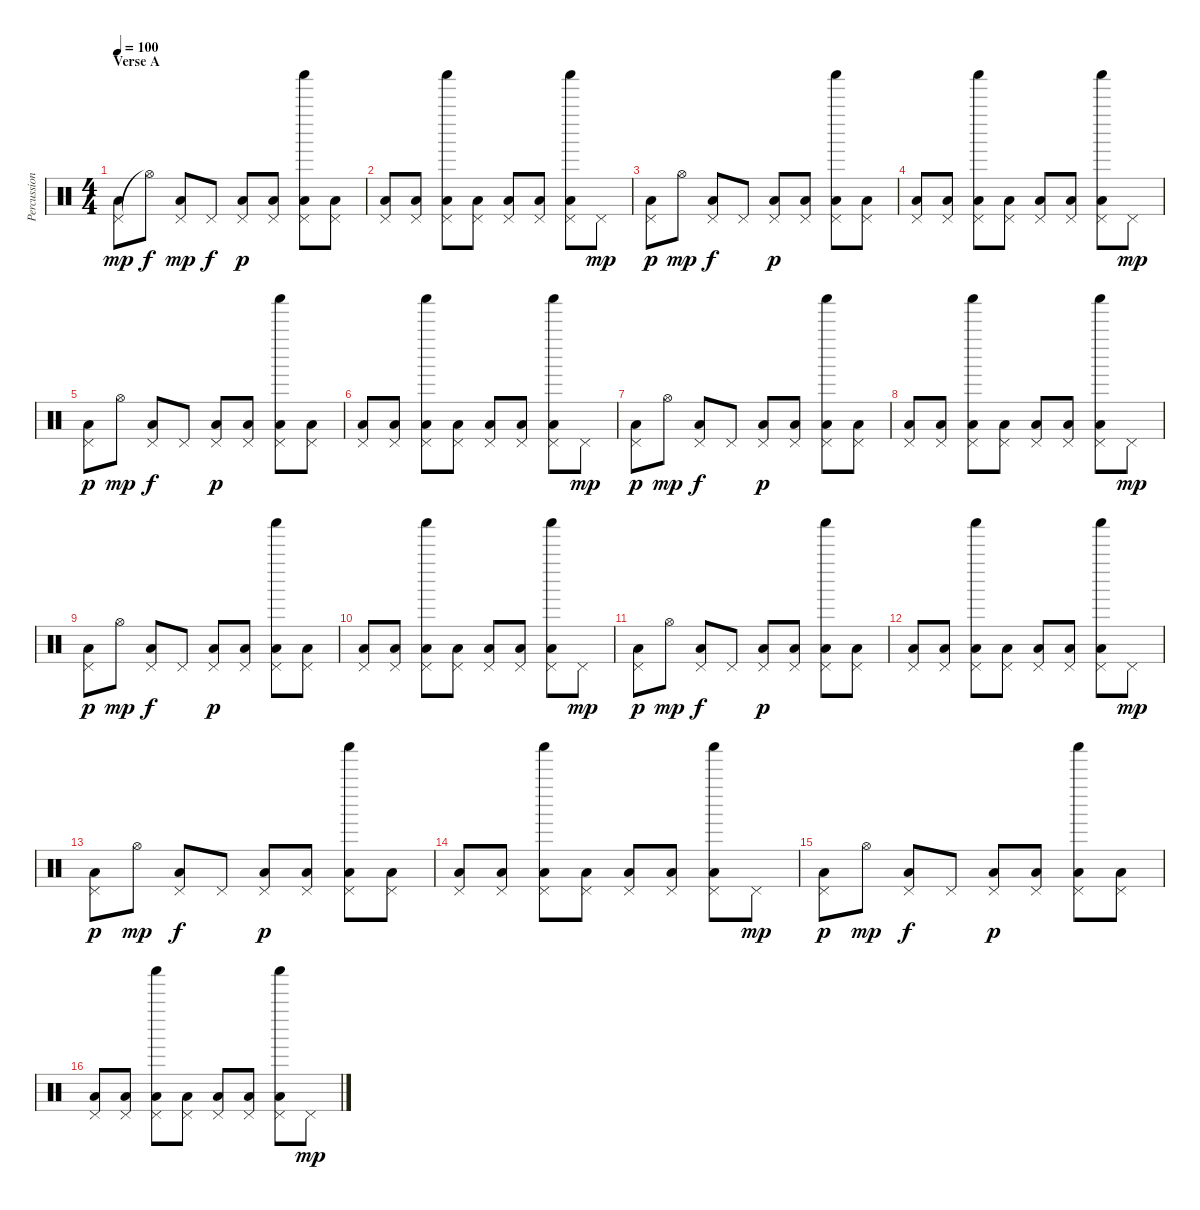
\track ("Percussions" "Percussion") {instrument percussion}
\staff {score}
\articulation defaults
\ts (4 4)
\section ("" "Verse A")
\tempo 100
\clef neutral
\ks c
("Pedal Hi-Hat (hit)"{t} "Low Floor Tom (hit)").8{dy mp} "Hi-Hat (open)"{t}.8{dy f} ("Pedal Hi-Hat (hit)" "Low Floor Tom (hit)").8{dy mp} "Pedal Hi-Hat (hit)".8{dy f} ("Pedal Hi-Hat (hit)" "Low Floor Tom (hit)").8{dy p} ("Pedal Hi-Hat (hit)" "Low Floor Tom (hit)").8 ("Pedal Hi-Hat (hit)" "Shaker (hit)" "Low Floor Tom (hit)").8 ("Pedal Hi-Hat (hit)" "Low Floor Tom (hit)").8 |
("Pedal Hi-Hat (hit)" "Low Floor Tom (hit)").8 ("Pedal Hi-Hat (hit)" "Low Floor Tom (hit)").8 ("Pedal Hi-Hat (hit)" "Shaker (hit)" "Low Floor Tom (hit)").8 ("Pedal Hi-Hat (hit)" "Low Floor Tom (hit)").8 ("Pedal Hi-Hat (hit)" "Low Floor Tom (hit)").8 ("Pedal Hi-Hat (hit)" "Low Floor Tom (hit)").8 ("Pedal Hi-Hat (hit)" "Shaker (hit)" "Low Floor Tom (hit)").8 "Pedal Hi-Hat (hit)".8{dy mp} |
("Pedal Hi-Hat (hit)" "Low Floor Tom (hit)").8{dy p} "Hi-Hat (open)".8{dy mp} ("Pedal Hi-Hat (hit)" "Low Floor Tom (hit)").8{dy f} "Pedal Hi-Hat (hit)".8 ("Pedal Hi-Hat (hit)" "Low Floor Tom (hit)").8{dy p} ("Pedal Hi-Hat (hit)" "Low Floor Tom (hit)").8 ("Pedal Hi-Hat (hit)" "Shaker (hit)" "Low Floor Tom (hit)").8 ("Pedal Hi-Hat (hit)" "Low Floor Tom (hit)").8 |
("Pedal Hi-Hat (hit)" "Low Floor Tom (hit)").8 ("Pedal Hi-Hat (hit)" "Low Floor Tom (hit)").8 ("Pedal Hi-Hat (hit)" "Shaker (hit)" "Low Floor Tom (hit)").8 ("Pedal Hi-Hat (hit)" "Low Floor Tom (hit)").8 ("Pedal Hi-Hat (hit)" "Low Floor Tom (hit)").8 ("Pedal Hi-Hat (hit)" "Low Floor Tom (hit)").8 ("Pedal Hi-Hat (hit)" "Shaker (hit)" "Low Floor Tom (hit)").8 "Pedal Hi-Hat (hit)".8{dy mp} |
("Pedal Hi-Hat (hit)" "Low Floor Tom (hit)").8{dy p} "Hi-Hat (open)".8{dy mp} ("Pedal Hi-Hat (hit)" "Low Floor Tom (hit)").8{dy f} "Pedal Hi-Hat (hit)".8 ("Pedal Hi-Hat (hit)" "Low Floor Tom (hit)").8{dy p} ("Pedal Hi-Hat (hit)" "Low Floor Tom (hit)").8 ("Pedal Hi-Hat (hit)" "Shaker (hit)" "Low Floor Tom (hit)").8 ("Pedal Hi-Hat (hit)" "Low Floor Tom (hit)").8 |
("Pedal Hi-Hat (hit)" "Low Floor Tom (hit)").8 ("Pedal Hi-Hat (hit)" "Low Floor Tom (hit)").8 ("Pedal Hi-Hat (hit)" "Shaker (hit)" "Low Floor Tom (hit)").8 ("Pedal Hi-Hat (hit)" "Low Floor Tom (hit)").8 ("Pedal Hi-Hat (hit)" "Low Floor Tom (hit)").8 ("Pedal Hi-Hat (hit)" "Low Floor Tom (hit)").8 ("Pedal Hi-Hat (hit)" "Shaker (hit)" "Low Floor Tom (hit)").8 "Pedal Hi-Hat (hit)".8{dy mp} |
("Pedal Hi-Hat (hit)" "Low Floor Tom (hit)").8{dy p} "Hi-Hat (open)".8{dy mp} ("Pedal Hi-Hat (hit)" "Low Floor Tom (hit)").8{dy f} "Pedal Hi-Hat (hit)".8 ("Pedal Hi-Hat (hit)" "Low Floor Tom (hit)").8{dy p} ("Pedal Hi-Hat (hit)" "Low Floor Tom (hit)").8 ("Pedal Hi-Hat (hit)" "Shaker (hit)" "Low Floor Tom (hit)").8 ("Pedal Hi-Hat (hit)" "Low Floor Tom (hit)").8 |
("Pedal Hi-Hat (hit)" "Low Floor Tom (hit)").8 ("Pedal Hi-Hat (hit)" "Low Floor Tom (hit)").8 ("Pedal Hi-Hat (hit)" "Shaker (hit)" "Low Floor Tom (hit)").8 ("Pedal Hi-Hat (hit)" "Low Floor Tom (hit)").8 ("Pedal Hi-Hat (hit)" "Low Floor Tom (hit)").8 ("Pedal Hi-Hat (hit)" "Low Floor Tom (hit)").8 ("Pedal Hi-Hat (hit)" "Shaker (hit)" "Low Floor Tom (hit)").8 "Pedal Hi-Hat (hit)".8{dy mp} |
("Pedal Hi-Hat (hit)" "Low Floor Tom (hit)").8{dy p} "Hi-Hat (open)".8{dy mp} ("Pedal Hi-Hat (hit)" "Low Floor Tom (hit)").8{dy f} "Pedal Hi-Hat (hit)".8 ("Pedal Hi-Hat (hit)" "Low Floor Tom (hit)").8{dy p} ("Pedal Hi-Hat (hit)" "Low Floor Tom (hit)").8 ("Pedal Hi-Hat (hit)" "Shaker (hit)" "Low Floor Tom (hit)").8 ("Pedal Hi-Hat (hit)" "Low Floor Tom (hit)").8 |
("Pedal Hi-Hat (hit)" "Low Floor Tom (hit)").8 ("Pedal Hi-Hat (hit)" "Low Floor Tom (hit)").8 ("Pedal Hi-Hat (hit)" "Shaker (hit)" "Low Floor Tom (hit)").8 ("Pedal Hi-Hat (hit)" "Low Floor Tom (hit)").8 ("Pedal Hi-Hat (hit)" "Low Floor Tom (hit)").8 ("Pedal Hi-Hat (hit)" "Low Floor Tom (hit)").8 ("Pedal Hi-Hat (hit)" "Shaker (hit)" "Low Floor Tom (hit)").8 "Pedal Hi-Hat (hit)".8{dy mp} |
("Pedal Hi-Hat (hit)" "Low Floor Tom (hit)").8{dy p} "Hi-Hat (open)".8{dy mp} ("Pedal Hi-Hat (hit)" "Low Floor Tom (hit)").8{dy f} "Pedal Hi-Hat (hit)".8 ("Pedal Hi-Hat (hit)" "Low Floor Tom (hit)").8{dy p} ("Pedal Hi-Hat (hit)" "Low Floor Tom (hit)").8 ("Pedal Hi-Hat (hit)" "Shaker (hit)" "Low Floor Tom (hit)").8 ("Pedal Hi-Hat (hit)" "Low Floor Tom (hit)").8 |
("Pedal Hi-Hat (hit)" "Low Floor Tom (hit)").8 ("Pedal Hi-Hat (hit)" "Low Floor Tom (hit)").8 ("Pedal Hi-Hat (hit)" "Shaker (hit)" "Low Floor Tom (hit)").8 ("Pedal Hi-Hat (hit)" "Low Floor Tom (hit)").8 ("Pedal Hi-Hat (hit)" "Low Floor Tom (hit)").8 ("Pedal Hi-Hat (hit)" "Low Floor Tom (hit)").8 ("Pedal Hi-Hat (hit)" "Shaker (hit)" "Low Floor Tom (hit)").8 "Pedal Hi-Hat (hit)".8{dy mp} |
("Pedal Hi-Hat (hit)" "Low Floor Tom (hit)").8{dy p} "Hi-Hat (open)".8{dy mp} ("Pedal Hi-Hat (hit)" "Low Floor Tom (hit)").8{dy f} "Pedal Hi-Hat (hit)".8 ("Pedal Hi-Hat (hit)" "Low Floor Tom (hit)").8{dy p} ("Pedal Hi-Hat (hit)" "Low Floor Tom (hit)").8 ("Pedal Hi-Hat (hit)" "Shaker (hit)" "Low Floor Tom (hit)").8 ("Pedal Hi-Hat (hit)" "Low Floor Tom (hit)").8 |
("Pedal Hi-Hat (hit)" "Low Floor Tom (hit)").8 ("Pedal Hi-Hat (hit)" "Low Floor Tom (hit)").8 ("Pedal Hi-Hat (hit)" "Shaker (hit)" "Low Floor Tom (hit)").8 ("Pedal Hi-Hat (hit)" "Low Floor Tom (hit)").8 ("Pedal Hi-Hat (hit)" "Low Floor Tom (hit)").8 ("Pedal Hi-Hat (hit)" "Low Floor Tom (hit)").8 ("Pedal Hi-Hat (hit)" "Shaker (hit)" "Low Floor Tom (hit)").8 "Pedal Hi-Hat (hit)".8{dy mp} |
("Pedal Hi-Hat (hit)" "Low Floor Tom (hit)").8{dy p} "Hi-Hat (open)".8{dy mp} ("Pedal Hi-Hat (hit)" "Low Floor Tom (hit)").8{dy f} "Pedal Hi-Hat (hit)".8 ("Pedal Hi-Hat (hit)" "Low Floor Tom (hit)").8{dy p} ("Pedal Hi-Hat (hit)" "Low Floor Tom (hit)").8 ("Pedal Hi-Hat (hit)" "Shaker (hit)" "Low Floor Tom (hit)").8 ("Pedal Hi-Hat (hit)" "Low Floor Tom (hit)").8 |
("Pedal Hi-Hat (hit)" "Low Floor Tom (hit)").8 ("Pedal Hi-Hat (hit)" "Low Floor Tom (hit)").8 ("Pedal Hi-Hat (hit)" "Shaker (hit)" "Low Floor Tom (hit)").8 ("Pedal Hi-Hat (hit)" "Low Floor Tom (hit)").8 ("Pedal Hi-Hat (hit)" "Low Floor Tom (hit)").8 ("Pedal Hi-Hat (hit)" "Low Floor Tom (hit)").8 ("Pedal Hi-Hat (hit)" "Shaker (hit)" "Low Floor Tom (hit)").8 "Pedal Hi-Hat (hit)".8{dy mp}
